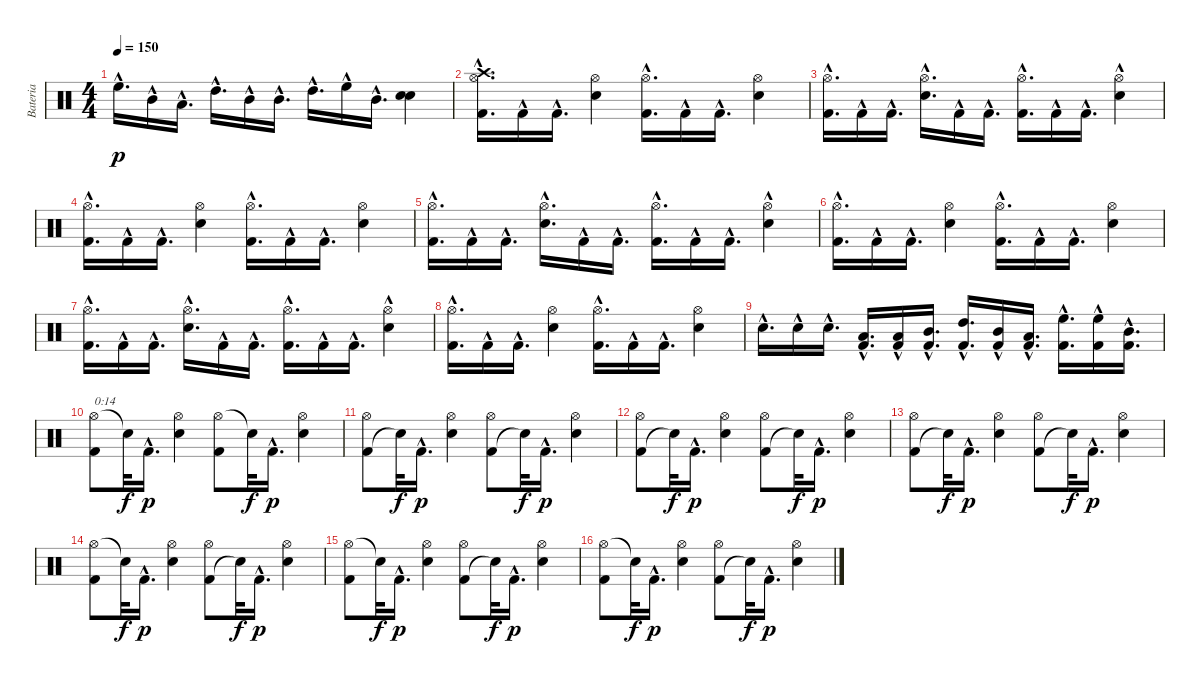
\track ("Bateria" "Bateria") {instrument percussion}
\staff {score}
\articulation defaults
\ts (4 4)
\tempo 150
\clef neutral
\ks c "High Floor Tom (hit)"{hac}.16{d dy p} "Mid Tom (hit)"{hac}.16 "Low Tom (hit)"{hac}.16{d} "High Tom (hit)"{hac}.16{d} "Mid Tom (hit)"{hac}.16 "Mid Tom (hit)"{hac}.16{d} "High Tom (hit)"{hac}.16{d} "High Floor Tom (hit)"{hac}.16 "Mid Tom (hit)"{hac}.16{d}
("Snare (hit) 2" "Snare (hit) 2").4 |
("Crash high (hit)" "Hi-Hat (open)" "Kick (hit) 2"{hac}).16{d} "Kick (hit) 2"{hac}.16 "Kick (hit) 2"{hac}.16{d} ("Hi-Hat (open)" "Snare (hit) 2").4 ("Hi-Hat (open)" "Kick (hit) 2"{hac}).16{d} "Kick (hit) 2"{hac}.16 "Kick (hit) 2"{hac}.16{d} ("Hi-Hat (open)" "Snare (hit) 2").4 |
("Hi-Hat (open)" "Kick (hit) 2"{hac}).16{d} "Kick (hit) 2"{hac}.16 "Kick (hit) 2"{hac}.16{d} ("Hi-Hat (open)" "Snare (hit) 2"{hac}).16{d} "Kick (hit) 2"{hac}.16 "Kick (hit) 2"{hac}.16{d} ("Hi-Hat (open)" "Kick (hit) 2"{hac}).16{d} "Kick (hit) 2"{hac}.16 "Kick (hit) 2"{hac}.16{d} ("Hi-Hat (open)" "Electric Snare (hit)"{hac}).4 |
("Kick (hit) 2"{hac} "Hi-Hat (open)").16{d} "Kick (hit) 2"{hac}.16 "Kick (hit) 2"{hac}.16{d} ("Snare (hit) 2" "Hi-Hat (open)").4 ("Kick (hit) 2"{hac} "Hi-Hat (open)").16{d} "Kick (hit) 2"{hac}.16 "Kick (hit) 2"{hac}.16{d} ("Snare (hit) 2" "Hi-Hat (open)").4 |
("Kick (hit) 2"{hac} "Hi-Hat (open)").16{d} "Kick (hit) 2"{hac}.16 "Kick (hit) 2"{hac}.16{d} ("Snare (hit) 2"{hac} "Hi-Hat (open)").16{d} "Kick (hit) 2"{hac}.16 "Kick (hit) 2"{hac}.16{d} ("Kick (hit) 2"{hac} "Hi-Hat (open)").16{d} "Kick (hit) 2"{hac}.16 "Kick (hit) 2"{hac}.16{d} ("Electric Snare (hit)"{hac} "Hi-Hat (open)").4 |
("Kick (hit) 2"{hac} "Hi-Hat (open)").16{d} "Kick (hit) 2"{hac}.16 "Kick (hit) 2"{hac}.16{d} ("Snare (hit) 2" "Hi-Hat (open)").4 ("Kick (hit) 2"{hac} "Hi-Hat (open)").16{d} "Kick (hit) 2"{hac}.16 "Kick (hit) 2"{hac}.16{d} ("Snare (hit) 2" "Hi-Hat (open)").4 |
("Kick (hit) 2"{hac} "Hi-Hat (open)").16{d} "Kick (hit) 2"{hac}.16 "Kick (hit) 2"{hac}.16{d} ("Snare (hit) 2"{hac} "Hi-Hat (open)").16{d} "Kick (hit) 2"{hac}.16 "Kick (hit) 2"{hac}.16{d} ("Kick (hit) 2"{hac} "Hi-Hat (open)").16{d} "Kick (hit) 2"{hac}.16 "Kick (hit) 2"{hac}.16{d} ("Electric Snare (hit)"{hac} "Hi-Hat (open)").4 |
("Kick (hit) 2"{hac} "Hi-Hat (open)").16{d} "Kick (hit) 2"{hac}.16 "Kick (hit) 2"{hac}.16{d} ("Snare (hit) 2" "Hi-Hat (open)").4 ("Kick (hit) 2"{hac} "Hi-Hat (open)").16{d} "Kick (hit) 2"{hac}.16 "Kick (hit) 2"{hac}.16{d} ("Snare (hit) 2" "Hi-Hat (open)").4 |
"Snare (hit) 2"{hac}.16{d} "Snare (hit) 2"{hac}.16 "Snare (hit) 2"{hac}.16{d} ("Low Tom (hit)"{hac} "Kick (hit) 2"{hac}).16{d} ("Low Tom (hit)"{hac} "Kick (hit) 2"{hac}).16 ("Mid Tom (hit)"{hac} "Kick (hit) 2"{hac}).16{d} ("High Tom (hit)"{hac} "Kick (hit) 2"{hac}).16{d} ("Mid Tom (hit)"{hac} "Kick (hit) 2"{hac}).16 ("Low Tom (hit)"{hac} "Kick (hit) 2"{hac}).16{d} ("High Floor Tom (hit)"{hac} "Kick (hit) 2"{hac}).16{d} ("High Floor Tom (hit)"{hac} "Kick (hit) 2"{hac}).16 ("Mid Tom (hit)"{hac} "Kick (hit) 2"{hac}).16{d} |
("Hi-Hat (open)" "Kick (hit) 2").8{txt "0:14"} "Snare (hit)"{t}.32{dy f} "Kick (hit) 2"{hac}.16{d dy p} ("Hi-Hat (open)" "Snare (hit) 2").4 ("Hi-Hat (open)" "Kick (hit) 2").8 "Snare (hit)"{t}.32{dy f} "Kick (hit) 2"{hac}.16{d dy p} ("Hi-Hat (open)" "Snare (hit) 2").4 |
("Kick (hit) 2" "Hi-Hat (open)").8 "Snare (hit)"{t}.32{dy f} "Kick (hit) 2"{hac}.16{d dy p} ("Snare (hit) 2" "Hi-Hat (open)").4 ("Kick (hit) 2" "Hi-Hat (open)").8 "Snare (hit)"{t}.32{dy f} "Kick (hit) 2"{hac}.16{d dy p} ("Snare (hit) 2" "Hi-Hat (open)").4 |
("Kick (hit) 2" "Hi-Hat (open)").8 "Snare (hit)"{t}.32{dy f} "Kick (hit) 2"{hac}.16{d dy p} ("Snare (hit) 2" "Hi-Hat (open)").4 ("Kick (hit) 2" "Hi-Hat (open)").8 "Snare (hit)"{t}.32{dy f} "Kick (hit) 2"{hac}.16{d dy p} ("Hi-Hat (open)" "Snare (hit) 2").4 |
("Kick (hit) 2" "Hi-Hat (open)").8 "Snare (hit)"{t}.32{dy f} "Kick (hit) 2"{hac}.16{d dy p} ("Hi-Hat (open)" "Snare (hit) 2").4 ("Kick (hit) 2" "Hi-Hat (open)").8 "Snare (hit)"{t}.32{dy f} "Kick (hit) 2"{hac}.16{d dy p} ("Hi-Hat (open)" "Snare (hit) 2").4 |
("Hi-Hat (open)" "Kick (hit) 2").8 "Snare (hit)"{t}.32{dy f} "Kick (hit) 2"{hac}.16{d dy p} ("Hi-Hat (open)" "Snare (hit) 2").4 ("Kick (hit) 2" "Hi-Hat (open)").8 "Snare (hit)"{t}.32{dy f} "Kick (hit) 2"{hac}.16{d dy p} ("Hi-Hat (open)" "Snare (hit) 2").4 |
("Hi-Hat (open)" "Kick (hit) 2").8 "Snare (hit)"{t}.32{dy f} "Kick (hit) 2"{hac}.16{d dy p} ("Hi-Hat (open)" "Snare (hit) 2").4 ("Kick (hit) 2" "Hi-Hat (open)").8 "Snare (hit)"{t}.32{dy f} "Kick (hit) 2"{hac}.16{d dy p} ("Hi-Hat (open)" "Snare (hit) 2").4 |
("Hi-Hat (open)" "Kick (hit) 2").8 "Snare (hit)"{t}.32{dy f} "Kick (hit) 2"{hac}.16{d dy p} ("Hi-Hat (open)" "Snare (hit) 2").4 ("Kick (hit) 2" "Hi-Hat (open)").8 "Snare (hit)"{t}.32{dy f} "Kick (hit) 2"{hac}.16{d dy p} ("Hi-Hat (open)" "Snare (hit) 2").4
